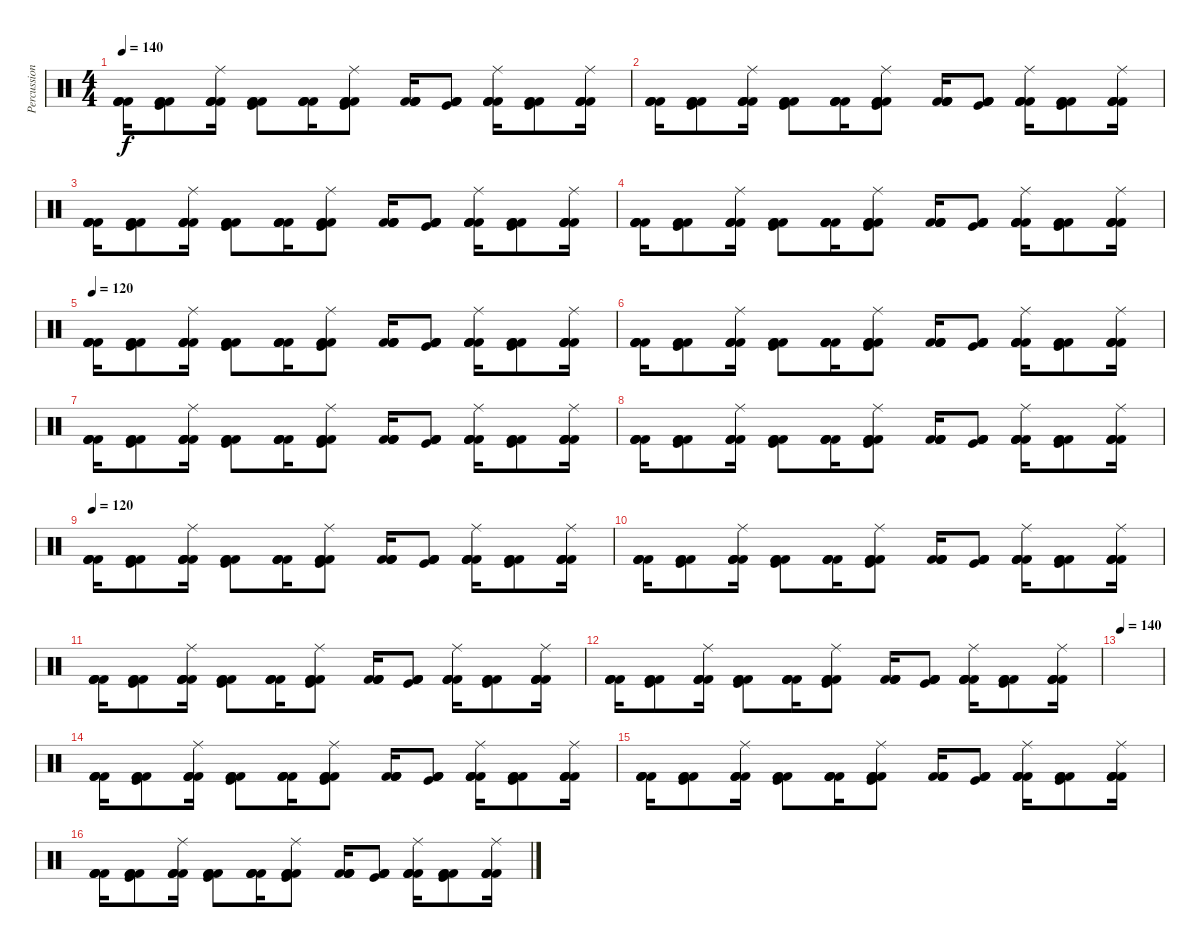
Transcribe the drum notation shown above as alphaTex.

\track ("Percussion" "Percussion") {instrument percussion}
\staff {score}
\articulation defaults
\ts (4 4)
\tempo 140
\clef neutral
\ks c
("Kick (hit) 2" "Kick (hit) 2" "Kick (hit) 2" "Kick (hit) 2").16{dy f} ("Kick (hit) 2" "Kick (hit)" "Kick (hit) 2" "Kick (hit) 2").8 ("Kick (hit) 2" "Kick (hit) 2" "Ride (middle)" "Kick (hit) 2" "Kick (hit) 2").16 ("Kick (hit) 2" "Kick (hit)" "Kick (hit) 2" "Kick (hit) 2").8 ("Kick (hit) 2" "Kick (hit) 2" "Kick (hit) 2" "Kick (hit) 2").16 ("Kick (hit) 2" "Kick (hit)" "Ride (middle)" "Kick (hit) 2" "Kick (hit) 2").8 ("Kick (hit) 2" "Kick (hit) 2" "Kick (hit) 2" "Kick (hit) 2").16 ("Kick (hit) 2" "Kick (hit)" "Kick (hit) 2" "Kick (hit) 2").8 ("Kick (hit) 2" "Kick (hit) 2" "Ride (middle)" "Kick (hit) 2" "Kick (hit) 2").16 ("Kick (hit) 2" "Kick (hit)" "Kick (hit) 2" "Kick (hit) 2").8 ("Kick (hit) 2" "Kick (hit) 2" "Ride (middle)" "Kick (hit) 2" "Kick (hit) 2").16 |
("Kick (hit) 2" "Kick (hit) 2" "Kick (hit) 2" "Kick (hit) 2").16 ("Kick (hit) 2" "Kick (hit)" "Kick (hit) 2" "Kick (hit) 2").8 ("Kick (hit) 2" "Kick (hit) 2" "Ride (middle)" "Kick (hit) 2" "Kick (hit) 2").16 ("Kick (hit) 2" "Kick (hit)" "Kick (hit) 2" "Kick (hit) 2").8 ("Kick (hit) 2" "Kick (hit) 2" "Kick (hit) 2" "Kick (hit) 2").16 ("Kick (hit) 2" "Kick (hit)" "Ride (middle)" "Kick (hit) 2" "Kick (hit) 2").8 ("Kick (hit) 2" "Kick (hit) 2" "Kick (hit) 2" "Kick (hit) 2").16 ("Kick (hit) 2" "Kick (hit)" "Kick (hit) 2" "Kick (hit) 2").8 ("Kick (hit) 2" "Kick (hit) 2" "Ride (middle)" "Kick (hit) 2" "Kick (hit) 2").16 ("Kick (hit) 2" "Kick (hit)" "Kick (hit) 2" "Kick (hit) 2").8 ("Kick (hit) 2" "Kick (hit) 2" "Ride (middle)" "Kick (hit) 2" "Kick (hit) 2").16 |
("Kick (hit) 2" "Kick (hit) 2" "Kick (hit) 2" "Kick (hit) 2").16 ("Kick (hit) 2" "Kick (hit)" "Kick (hit) 2" "Kick (hit) 2").8 ("Kick (hit) 2" "Kick (hit) 2" "Ride (middle)" "Kick (hit) 2" "Kick (hit) 2").16 ("Kick (hit) 2" "Kick (hit)" "Kick (hit) 2" "Kick (hit) 2").8 ("Kick (hit) 2" "Kick (hit) 2" "Kick (hit) 2" "Kick (hit) 2").16 ("Kick (hit) 2" "Kick (hit)" "Ride (middle)" "Kick (hit) 2" "Kick (hit) 2").8 ("Kick (hit) 2" "Kick (hit) 2" "Kick (hit) 2" "Kick (hit) 2").16 ("Kick (hit) 2" "Kick (hit)" "Kick (hit) 2" "Kick (hit) 2").8 ("Kick (hit) 2" "Kick (hit) 2" "Ride (middle)" "Kick (hit) 2" "Kick (hit) 2").16 ("Kick (hit) 2" "Kick (hit)" "Kick (hit) 2" "Kick (hit) 2").8 ("Kick (hit) 2" "Kick (hit) 2" "Ride (middle)" "Kick (hit) 2" "Kick (hit) 2").16 |
("Kick (hit) 2" "Kick (hit) 2" "Kick (hit) 2" "Kick (hit) 2").16 ("Kick (hit) 2" "Kick (hit)" "Kick (hit) 2" "Kick (hit) 2").8 ("Kick (hit) 2" "Kick (hit) 2" "Ride (middle)" "Kick (hit) 2" "Kick (hit) 2").16 ("Kick (hit) 2" "Kick (hit)" "Kick (hit) 2" "Kick (hit) 2").8 ("Kick (hit) 2" "Kick (hit) 2" "Kick (hit) 2" "Kick (hit) 2").16 ("Kick (hit) 2" "Kick (hit)" "Ride (middle)" "Kick (hit) 2" "Kick (hit) 2").8 ("Kick (hit) 2" "Kick (hit) 2" "Kick (hit) 2" "Kick (hit) 2").16 ("Kick (hit) 2" "Kick (hit)" "Kick (hit) 2" "Kick (hit) 2").8 ("Kick (hit) 2" "Kick (hit) 2" "Ride (middle)" "Kick (hit) 2" "Kick (hit) 2").16 ("Kick (hit) 2" "Kick (hit)" "Kick (hit) 2" "Kick (hit) 2").8 ("Kick (hit) 2" "Kick (hit) 2" "Ride (middle)" "Kick (hit) 2" "Kick (hit) 2").16 |
\tempo 120
("Kick (hit) 2" "Kick (hit) 2" "Kick (hit) 2" "Kick (hit) 2").16 ("Kick (hit) 2" "Kick (hit)" "Kick (hit) 2" "Kick (hit) 2").8 ("Kick (hit) 2" "Kick (hit) 2" "Ride (middle)" "Kick (hit) 2" "Kick (hit) 2").16 ("Kick (hit) 2" "Kick (hit)" "Kick (hit) 2" "Kick (hit) 2").8 ("Kick (hit) 2" "Kick (hit) 2" "Kick (hit) 2" "Kick (hit) 2").16 ("Kick (hit) 2" "Kick (hit)" "Ride (middle)" "Kick (hit) 2" "Kick (hit) 2").8 ("Kick (hit) 2" "Kick (hit) 2" "Kick (hit) 2" "Kick (hit) 2").16 ("Kick (hit) 2" "Kick (hit)" "Kick (hit) 2" "Kick (hit) 2").8 ("Kick (hit) 2" "Kick (hit) 2" "Ride (middle)" "Kick (hit) 2" "Kick (hit) 2").16 ("Kick (hit) 2" "Kick (hit)" "Kick (hit) 2" "Kick (hit) 2").8 ("Kick (hit) 2" "Kick (hit) 2" "Ride (middle)" "Kick (hit) 2" "Kick (hit) 2").16 |
("Kick (hit) 2" "Kick (hit) 2" "Kick (hit) 2" "Kick (hit) 2").16 ("Kick (hit) 2" "Kick (hit)" "Kick (hit) 2" "Kick (hit) 2").8 ("Kick (hit) 2" "Kick (hit) 2" "Ride (middle)" "Kick (hit) 2" "Kick (hit) 2").16 ("Kick (hit) 2" "Kick (hit)" "Kick (hit) 2" "Kick (hit) 2").8 ("Kick (hit) 2" "Kick (hit) 2" "Kick (hit) 2" "Kick (hit) 2").16 ("Kick (hit) 2" "Kick (hit)" "Ride (middle)" "Kick (hit) 2" "Kick (hit) 2").8 ("Kick (hit) 2" "Kick (hit) 2" "Kick (hit) 2" "Kick (hit) 2").16 ("Kick (hit) 2" "Kick (hit)" "Kick (hit) 2" "Kick (hit) 2").8 ("Kick (hit) 2" "Kick (hit) 2" "Ride (middle)" "Kick (hit) 2" "Kick (hit) 2").16 ("Kick (hit) 2" "Kick (hit)" "Kick (hit) 2" "Kick (hit) 2").8 ("Kick (hit) 2" "Kick (hit) 2" "Ride (middle)" "Kick (hit) 2" "Kick (hit) 2").16 |
("Kick (hit) 2" "Kick (hit) 2" "Kick (hit) 2" "Kick (hit) 2").16 ("Kick (hit) 2" "Kick (hit)" "Kick (hit) 2" "Kick (hit) 2").8 ("Kick (hit) 2" "Kick (hit) 2" "Ride (middle)" "Kick (hit) 2" "Kick (hit) 2").16 ("Kick (hit) 2" "Kick (hit)" "Kick (hit) 2" "Kick (hit) 2").8 ("Kick (hit) 2" "Kick (hit) 2" "Kick (hit) 2" "Kick (hit) 2").16 ("Kick (hit) 2" "Kick (hit)" "Ride (middle)" "Kick (hit) 2" "Kick (hit) 2").8 ("Kick (hit) 2" "Kick (hit) 2" "Kick (hit) 2" "Kick (hit) 2").16 ("Kick (hit) 2" "Kick (hit)" "Kick (hit) 2" "Kick (hit) 2").8 ("Kick (hit) 2" "Kick (hit) 2" "Ride (middle)" "Kick (hit) 2" "Kick (hit) 2").16 ("Kick (hit) 2" "Kick (hit)" "Kick (hit) 2" "Kick (hit) 2").8 ("Kick (hit) 2" "Kick (hit) 2" "Ride (middle)" "Kick (hit) 2" "Kick (hit) 2").16 |
("Kick (hit) 2" "Kick (hit) 2" "Kick (hit) 2" "Kick (hit) 2").16 ("Kick (hit) 2" "Kick (hit)" "Kick (hit) 2" "Kick (hit) 2").8 ("Kick (hit) 2" "Kick (hit) 2" "Ride (middle)" "Kick (hit) 2" "Kick (hit) 2").16 ("Kick (hit) 2" "Kick (hit)" "Kick (hit) 2" "Kick (hit) 2").8 ("Kick (hit) 2" "Kick (hit) 2" "Kick (hit) 2" "Kick (hit) 2").16 ("Kick (hit) 2" "Kick (hit)" "Ride (middle)" "Kick (hit) 2" "Kick (hit) 2").8 ("Kick (hit) 2" "Kick (hit) 2" "Kick (hit) 2" "Kick (hit) 2").16 ("Kick (hit) 2" "Kick (hit)" "Kick (hit) 2" "Kick (hit) 2").8 ("Kick (hit) 2" "Kick (hit) 2" "Ride (middle)" "Kick (hit) 2" "Kick (hit) 2").16 ("Kick (hit) 2" "Kick (hit)" "Kick (hit) 2" "Kick (hit) 2").8 ("Kick (hit) 2" "Kick (hit) 2" "Ride (middle)" "Kick (hit) 2" "Kick (hit) 2").16 |
\tempo 120
("Kick (hit) 2" "Kick (hit) 2" "Kick (hit) 2" "Kick (hit) 2").16 ("Kick (hit) 2" "Kick (hit)" "Kick (hit) 2" "Kick (hit) 2").8 ("Kick (hit) 2" "Kick (hit) 2" "Ride (middle)" "Kick (hit) 2" "Kick (hit) 2").16 ("Kick (hit) 2" "Kick (hit)" "Kick (hit) 2" "Kick (hit) 2").8 ("Kick (hit) 2" "Kick (hit) 2" "Kick (hit) 2" "Kick (hit) 2").16 ("Kick (hit) 2" "Kick (hit)" "Ride (middle)" "Kick (hit) 2" "Kick (hit) 2").8 ("Kick (hit) 2" "Kick (hit) 2" "Kick (hit) 2" "Kick (hit) 2").16 ("Kick (hit) 2" "Kick (hit)" "Kick (hit) 2" "Kick (hit) 2").8 ("Kick (hit) 2" "Kick (hit) 2" "Ride (middle)" "Kick (hit) 2" "Kick (hit) 2").16 ("Kick (hit) 2" "Kick (hit)" "Kick (hit) 2" "Kick (hit) 2").8 ("Kick (hit) 2" "Kick (hit) 2" "Ride (middle)" "Kick (hit) 2" "Kick (hit) 2").16 |
("Kick (hit) 2" "Kick (hit) 2" "Kick (hit) 2" "Kick (hit) 2").16 ("Kick (hit) 2" "Kick (hit)" "Kick (hit) 2" "Kick (hit) 2").8 ("Kick (hit) 2" "Kick (hit) 2" "Ride (middle)" "Kick (hit) 2" "Kick (hit) 2").16 ("Kick (hit) 2" "Kick (hit)" "Kick (hit) 2" "Kick (hit) 2").8 ("Kick (hit) 2" "Kick (hit) 2" "Kick (hit) 2" "Kick (hit) 2").16 ("Kick (hit) 2" "Kick (hit)" "Ride (middle)" "Kick (hit) 2" "Kick (hit) 2").8 ("Kick (hit) 2" "Kick (hit) 2" "Kick (hit) 2" "Kick (hit) 2").16 ("Kick (hit) 2" "Kick (hit)" "Kick (hit) 2" "Kick (hit) 2").8 ("Kick (hit) 2" "Kick (hit) 2" "Ride (middle)" "Kick (hit) 2" "Kick (hit) 2").16 ("Kick (hit) 2" "Kick (hit)" "Kick (hit) 2" "Kick (hit) 2").8 ("Kick (hit) 2" "Kick (hit) 2" "Ride (middle)" "Kick (hit) 2" "Kick (hit) 2").16 |
("Kick (hit) 2" "Kick (hit) 2" "Kick (hit) 2" "Kick (hit) 2").16 ("Kick (hit) 2" "Kick (hit)" "Kick (hit) 2" "Kick (hit) 2").8 ("Kick (hit) 2" "Kick (hit) 2" "Ride (middle)" "Kick (hit) 2" "Kick (hit) 2").16 ("Kick (hit) 2" "Kick (hit)" "Kick (hit) 2" "Kick (hit) 2").8 ("Kick (hit) 2" "Kick (hit) 2" "Kick (hit) 2" "Kick (hit) 2").16 ("Kick (hit) 2" "Kick (hit)" "Ride (middle)" "Kick (hit) 2" "Kick (hit) 2").8 ("Kick (hit) 2" "Kick (hit) 2" "Kick (hit) 2" "Kick (hit) 2").16 ("Kick (hit) 2" "Kick (hit)" "Kick (hit) 2" "Kick (hit) 2").8 ("Kick (hit) 2" "Kick (hit) 2" "Ride (middle)" "Kick (hit) 2" "Kick (hit) 2").16 ("Kick (hit) 2" "Kick (hit)" "Kick (hit) 2" "Kick (hit) 2").8 ("Kick (hit) 2" "Kick (hit) 2" "Ride (middle)" "Kick (hit) 2" "Kick (hit) 2").16 |
("Kick (hit) 2" "Kick (hit) 2" "Kick (hit) 2" "Kick (hit) 2").16 ("Kick (hit) 2" "Kick (hit)" "Kick (hit) 2" "Kick (hit) 2").8 ("Kick (hit) 2" "Kick (hit) 2" "Ride (middle)" "Kick (hit) 2" "Kick (hit) 2").16 ("Kick (hit) 2" "Kick (hit)" "Kick (hit) 2" "Kick (hit) 2").8 ("Kick (hit) 2" "Kick (hit) 2" "Kick (hit) 2" "Kick (hit) 2").16 ("Kick (hit) 2" "Kick (hit)" "Ride (middle)" "Kick (hit) 2" "Kick (hit) 2").8 ("Kick (hit) 2" "Kick (hit) 2" "Kick (hit) 2" "Kick (hit) 2").16 ("Kick (hit) 2" "Kick (hit)" "Kick (hit) 2" "Kick (hit) 2").8 ("Kick (hit) 2" "Kick (hit) 2" "Ride (middle)" "Kick (hit) 2" "Kick (hit) 2").16 ("Kick (hit) 2" "Kick (hit)" "Kick (hit) 2" "Kick (hit) 2").8 ("Kick (hit) 2" "Kick (hit) 2" "Ride (middle)" "Kick (hit) 2" "Kick (hit) 2").16 |
\tempo 140
|
("Kick (hit) 2" "Kick (hit) 2" "Kick (hit) 2" "Kick (hit) 2").16 ("Kick (hit) 2" "Kick (hit)" "Kick (hit) 2" "Kick (hit) 2").8 ("Kick (hit) 2" "Kick (hit) 2" "Ride (middle)" "Kick (hit) 2" "Kick (hit) 2").16 ("Kick (hit) 2" "Kick (hit)" "Kick (hit) 2" "Kick (hit) 2").8 ("Kick (hit) 2" "Kick (hit) 2" "Kick (hit) 2" "Kick (hit) 2").16 ("Kick (hit) 2" "Kick (hit)" "Ride (middle)" "Kick (hit) 2" "Kick (hit) 2").8 ("Kick (hit) 2" "Kick (hit) 2" "Kick (hit) 2" "Kick (hit) 2").16 ("Kick (hit) 2" "Kick (hit)" "Kick (hit) 2" "Kick (hit) 2").8 ("Kick (hit) 2" "Kick (hit) 2" "Ride (middle)" "Kick (hit) 2" "Kick (hit) 2").16 ("Kick (hit) 2" "Kick (hit)" "Kick (hit) 2" "Kick (hit) 2").8 ("Kick (hit) 2" "Kick (hit) 2" "Ride (middle)" "Kick (hit) 2" "Kick (hit) 2").16 |
("Kick (hit) 2" "Kick (hit) 2" "Kick (hit) 2" "Kick (hit) 2").16 ("Kick (hit) 2" "Kick (hit)" "Kick (hit) 2" "Kick (hit) 2").8 ("Kick (hit) 2" "Kick (hit) 2" "Ride (middle)" "Kick (hit) 2" "Kick (hit) 2").16 ("Kick (hit) 2" "Kick (hit)" "Kick (hit) 2" "Kick (hit) 2").8 ("Kick (hit) 2" "Kick (hit) 2" "Kick (hit) 2" "Kick (hit) 2").16 ("Kick (hit) 2" "Kick (hit)" "Ride (middle)" "Kick (hit) 2" "Kick (hit) 2").8 ("Kick (hit) 2" "Kick (hit) 2" "Kick (hit) 2" "Kick (hit) 2").16 ("Kick (hit) 2" "Kick (hit)" "Kick (hit) 2" "Kick (hit) 2").8 ("Kick (hit) 2" "Kick (hit) 2" "Ride (middle)" "Kick (hit) 2" "Kick (hit) 2").16 ("Kick (hit) 2" "Kick (hit)" "Kick (hit) 2" "Kick (hit) 2").8 ("Kick (hit) 2" "Kick (hit) 2" "Ride (middle)" "Kick (hit) 2" "Kick (hit) 2").16 |
("Kick (hit) 2" "Kick (hit) 2" "Kick (hit) 2" "Kick (hit) 2").16 ("Kick (hit) 2" "Kick (hit)" "Kick (hit) 2" "Kick (hit) 2").8 ("Kick (hit) 2" "Kick (hit) 2" "Ride (middle)" "Kick (hit) 2" "Kick (hit) 2").16 ("Kick (hit) 2" "Kick (hit)" "Kick (hit) 2" "Kick (hit) 2").8 ("Kick (hit) 2" "Kick (hit) 2" "Kick (hit) 2" "Kick (hit) 2").16 ("Kick (hit) 2" "Kick (hit)" "Ride (middle)" "Kick (hit) 2" "Kick (hit) 2").8 ("Kick (hit) 2" "Kick (hit) 2" "Kick (hit) 2" "Kick (hit) 2").16 ("Kick (hit) 2" "Kick (hit)" "Kick (hit) 2" "Kick (hit) 2").8 ("Kick (hit) 2" "Kick (hit) 2" "Ride (middle)" "Kick (hit) 2" "Kick (hit) 2").16 ("Kick (hit) 2" "Kick (hit)" "Kick (hit) 2" "Kick (hit) 2").8 ("Kick (hit) 2" "Kick (hit) 2" "Ride (middle)" "Kick (hit) 2" "Kick (hit) 2").16
